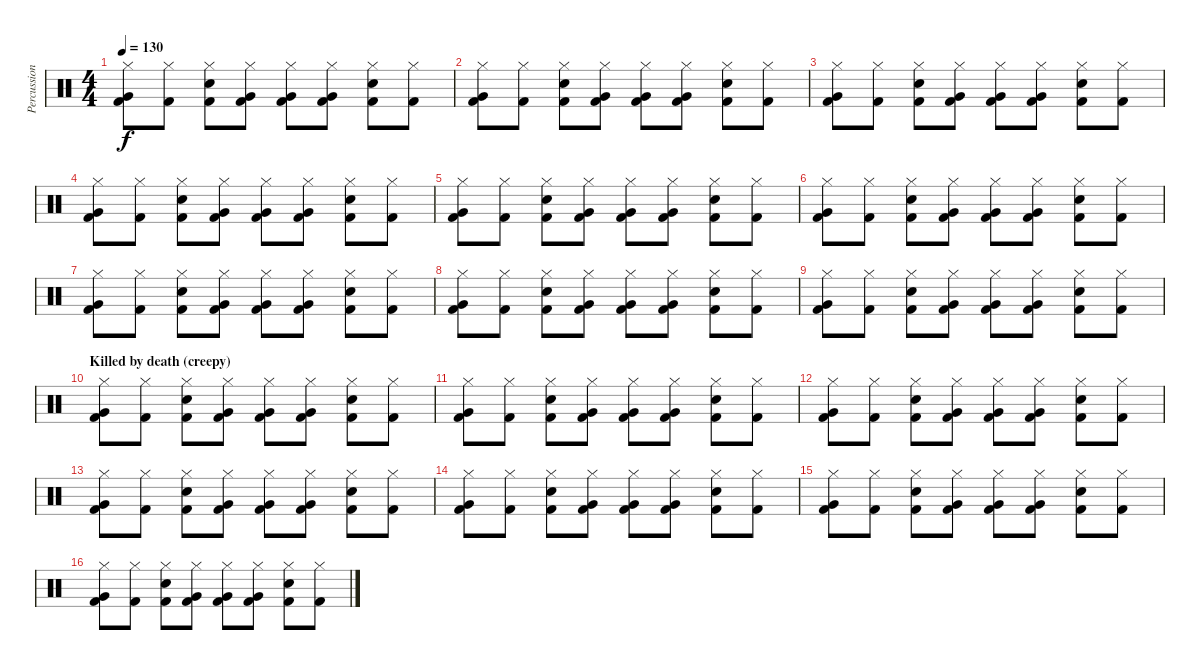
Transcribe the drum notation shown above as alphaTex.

\track ("Percussion" "Percussion") {instrument percussion}
\staff {score}
\articulation defaults
\ts (4 4)
\tempo 130
\clef neutral
\ks c
("Hi-Hat (closed)" "Very Low Tom (hit)" "Kick (hit) 2").8{dy f} ("Hi-Hat (closed)" "Kick (hit) 2").8 ("Hi-Hat (closed)" "Snare (hit) 2" "Kick (hit) 2").8 ("Hi-Hat (closed)" "Very Low Tom (hit)" "Kick (hit) 2").8 ("Hi-Hat (closed)" "Very Low Tom (hit)" "Kick (hit) 2").8 ("Hi-Hat (closed)" "Very Low Tom (hit)" "Kick (hit) 2").8 ("Hi-Hat (closed)" "Snare (hit) 2" "Kick (hit) 2").8 ("Hi-Hat (closed)" "Kick (hit) 2").8 |
("Hi-Hat (closed)" "Very Low Tom (hit)" "Kick (hit) 2").8 ("Hi-Hat (closed)" "Kick (hit) 2").8 ("Hi-Hat (closed)" "Snare (hit) 2" "Kick (hit) 2").8 ("Hi-Hat (closed)" "Very Low Tom (hit)" "Kick (hit) 2").8 ("Hi-Hat (closed)" "Very Low Tom (hit)" "Kick (hit) 2").8 ("Hi-Hat (closed)" "Very Low Tom (hit)" "Kick (hit) 2").8 ("Hi-Hat (closed)" "Snare (hit) 2" "Kick (hit) 2").8 ("Hi-Hat (closed)" "Kick (hit) 2").8 |
("Hi-Hat (closed)" "Very Low Tom (hit)" "Kick (hit) 2").8 ("Hi-Hat (closed)" "Kick (hit) 2").8 ("Hi-Hat (closed)" "Snare (hit) 2" "Kick (hit) 2").8 ("Hi-Hat (closed)" "Very Low Tom (hit)" "Kick (hit) 2").8 ("Hi-Hat (closed)" "Very Low Tom (hit)" "Kick (hit) 2").8 ("Hi-Hat (closed)" "Very Low Tom (hit)" "Kick (hit) 2").8 ("Hi-Hat (closed)" "Snare (hit) 2" "Kick (hit) 2").8 ("Hi-Hat (closed)" "Kick (hit) 2").8 |
("Hi-Hat (closed)" "Very Low Tom (hit)" "Kick (hit) 2").8 ("Hi-Hat (closed)" "Kick (hit) 2").8 ("Hi-Hat (closed)" "Snare (hit) 2" "Kick (hit) 2").8 ("Hi-Hat (closed)" "Very Low Tom (hit)" "Kick (hit) 2").8 ("Hi-Hat (closed)" "Very Low Tom (hit)" "Kick (hit) 2").8 ("Hi-Hat (closed)" "Very Low Tom (hit)" "Kick (hit) 2").8 ("Hi-Hat (closed)" "Snare (hit) 2" "Kick (hit) 2").8 ("Hi-Hat (closed)" "Kick (hit) 2").8 |
("Hi-Hat (closed)" "Very Low Tom (hit)" "Kick (hit) 2").8 ("Hi-Hat (closed)" "Kick (hit) 2").8 ("Hi-Hat (closed)" "Snare (hit) 2" "Kick (hit) 2").8 ("Hi-Hat (closed)" "Very Low Tom (hit)" "Kick (hit) 2").8 ("Hi-Hat (closed)" "Very Low Tom (hit)" "Kick (hit) 2").8 ("Hi-Hat (closed)" "Very Low Tom (hit)" "Kick (hit) 2").8 ("Hi-Hat (closed)" "Snare (hit) 2" "Kick (hit) 2").8 ("Hi-Hat (closed)" "Kick (hit) 2").8 |
("Hi-Hat (closed)" "Very Low Tom (hit)" "Kick (hit) 2").8 ("Hi-Hat (closed)" "Kick (hit) 2").8 ("Hi-Hat (closed)" "Snare (hit) 2" "Kick (hit) 2").8 ("Hi-Hat (closed)" "Very Low Tom (hit)" "Kick (hit) 2").8 ("Hi-Hat (closed)" "Very Low Tom (hit)" "Kick (hit) 2").8 ("Hi-Hat (closed)" "Very Low Tom (hit)" "Kick (hit) 2").8 ("Hi-Hat (closed)" "Snare (hit) 2" "Kick (hit) 2").8 ("Hi-Hat (closed)" "Kick (hit) 2").8 |
("Hi-Hat (closed)" "Very Low Tom (hit)" "Kick (hit) 2").8 ("Hi-Hat (closed)" "Kick (hit) 2").8 ("Hi-Hat (closed)" "Snare (hit) 2" "Kick (hit) 2").8 ("Hi-Hat (closed)" "Very Low Tom (hit)" "Kick (hit) 2").8 ("Hi-Hat (closed)" "Very Low Tom (hit)" "Kick (hit) 2").8 ("Hi-Hat (closed)" "Very Low Tom (hit)" "Kick (hit) 2").8 ("Hi-Hat (closed)" "Snare (hit) 2" "Kick (hit) 2").8 ("Hi-Hat (closed)" "Kick (hit) 2").8 |
("Hi-Hat (closed)" "Very Low Tom (hit)" "Kick (hit) 2").8 ("Hi-Hat (closed)" "Kick (hit) 2").8 ("Hi-Hat (closed)" "Snare (hit) 2" "Kick (hit) 2").8 ("Hi-Hat (closed)" "Very Low Tom (hit)" "Kick (hit) 2").8 ("Hi-Hat (closed)" "Very Low Tom (hit)" "Kick (hit) 2").8 ("Hi-Hat (closed)" "Very Low Tom (hit)" "Kick (hit) 2").8 ("Hi-Hat (closed)" "Snare (hit) 2" "Kick (hit) 2").8 ("Hi-Hat (closed)" "Kick (hit) 2").8 |
("Hi-Hat (closed)" "Very Low Tom (hit)" "Kick (hit) 2").8 ("Hi-Hat (closed)" "Kick (hit) 2").8 ("Hi-Hat (closed)" "Snare (hit) 2" "Kick (hit) 2").8 ("Hi-Hat (closed)" "Very Low Tom (hit)" "Kick (hit) 2").8 ("Hi-Hat (closed)" "Very Low Tom (hit)" "Kick (hit) 2").8 ("Hi-Hat (closed)" "Very Low Tom (hit)" "Kick (hit) 2").8 ("Hi-Hat (closed)" "Snare (hit) 2" "Kick (hit) 2").8 ("Hi-Hat (closed)" "Kick (hit) 2").8 |
\section ("" "Killed by death (creepy)")
("Hi-Hat (closed)" "Very Low Tom (hit)" "Kick (hit) 2").8 ("Hi-Hat (closed)" "Kick (hit) 2").8 ("Hi-Hat (closed)" "Snare (hit) 2" "Kick (hit) 2").8 ("Hi-Hat (closed)" "Very Low Tom (hit)" "Kick (hit) 2").8 ("Hi-Hat (closed)" "Very Low Tom (hit)" "Kick (hit) 2").8 ("Hi-Hat (closed)" "Very Low Tom (hit)" "Kick (hit) 2").8 ("Hi-Hat (closed)" "Snare (hit) 2" "Kick (hit) 2").8 ("Hi-Hat (closed)" "Kick (hit) 2").8 |
("Hi-Hat (closed)" "Very Low Tom (hit)" "Kick (hit) 2").8 ("Hi-Hat (closed)" "Kick (hit) 2").8 ("Hi-Hat (closed)" "Snare (hit) 2" "Kick (hit) 2").8 ("Hi-Hat (closed)" "Very Low Tom (hit)" "Kick (hit) 2").8 ("Hi-Hat (closed)" "Very Low Tom (hit)" "Kick (hit) 2").8 ("Hi-Hat (closed)" "Very Low Tom (hit)" "Kick (hit) 2").8 ("Hi-Hat (closed)" "Snare (hit) 2" "Kick (hit) 2").8 ("Hi-Hat (closed)" "Kick (hit) 2").8 |
("Hi-Hat (closed)" "Very Low Tom (hit)" "Kick (hit) 2").8 ("Hi-Hat (closed)" "Kick (hit) 2").8 ("Hi-Hat (closed)" "Snare (hit) 2" "Kick (hit) 2").8 ("Hi-Hat (closed)" "Very Low Tom (hit)" "Kick (hit) 2").8 ("Hi-Hat (closed)" "Very Low Tom (hit)" "Kick (hit) 2").8 ("Hi-Hat (closed)" "Very Low Tom (hit)" "Kick (hit) 2").8 ("Hi-Hat (closed)" "Snare (hit) 2" "Kick (hit) 2").8 ("Hi-Hat (closed)" "Kick (hit) 2").8 |
("Hi-Hat (closed)" "Very Low Tom (hit)" "Kick (hit) 2").8 ("Hi-Hat (closed)" "Kick (hit) 2").8 ("Hi-Hat (closed)" "Snare (hit) 2" "Kick (hit) 2").8 ("Hi-Hat (closed)" "Very Low Tom (hit)" "Kick (hit) 2").8 ("Hi-Hat (closed)" "Very Low Tom (hit)" "Kick (hit) 2").8 ("Hi-Hat (closed)" "Very Low Tom (hit)" "Kick (hit) 2").8 ("Hi-Hat (closed)" "Snare (hit) 2" "Kick (hit) 2").8 ("Hi-Hat (closed)" "Kick (hit) 2").8 |
("Hi-Hat (closed)" "Very Low Tom (hit)" "Kick (hit) 2").8 ("Hi-Hat (closed)" "Kick (hit) 2").8 ("Hi-Hat (closed)" "Snare (hit) 2" "Kick (hit) 2").8 ("Hi-Hat (closed)" "Very Low Tom (hit)" "Kick (hit) 2").8 ("Hi-Hat (closed)" "Very Low Tom (hit)" "Kick (hit) 2").8 ("Hi-Hat (closed)" "Very Low Tom (hit)" "Kick (hit) 2").8 ("Hi-Hat (closed)" "Snare (hit) 2" "Kick (hit) 2").8 ("Hi-Hat (closed)" "Kick (hit) 2").8 |
("Hi-Hat (closed)" "Very Low Tom (hit)" "Kick (hit) 2").8 ("Hi-Hat (closed)" "Kick (hit) 2").8 ("Hi-Hat (closed)" "Snare (hit) 2" "Kick (hit) 2").8 ("Hi-Hat (closed)" "Very Low Tom (hit)" "Kick (hit) 2").8 ("Hi-Hat (closed)" "Very Low Tom (hit)" "Kick (hit) 2").8 ("Hi-Hat (closed)" "Very Low Tom (hit)" "Kick (hit) 2").8 ("Hi-Hat (closed)" "Snare (hit) 2" "Kick (hit) 2").8 ("Hi-Hat (closed)" "Kick (hit) 2").8 |
("Hi-Hat (closed)" "Very Low Tom (hit)" "Kick (hit) 2").8 ("Hi-Hat (closed)" "Kick (hit) 2").8 ("Hi-Hat (closed)" "Snare (hit) 2" "Kick (hit) 2").8 ("Hi-Hat (closed)" "Very Low Tom (hit)" "Kick (hit) 2").8 ("Hi-Hat (closed)" "Very Low Tom (hit)" "Kick (hit) 2").8 ("Hi-Hat (closed)" "Very Low Tom (hit)" "Kick (hit) 2").8 ("Hi-Hat (closed)" "Snare (hit) 2" "Kick (hit) 2").8 ("Hi-Hat (closed)" "Kick (hit) 2").8
